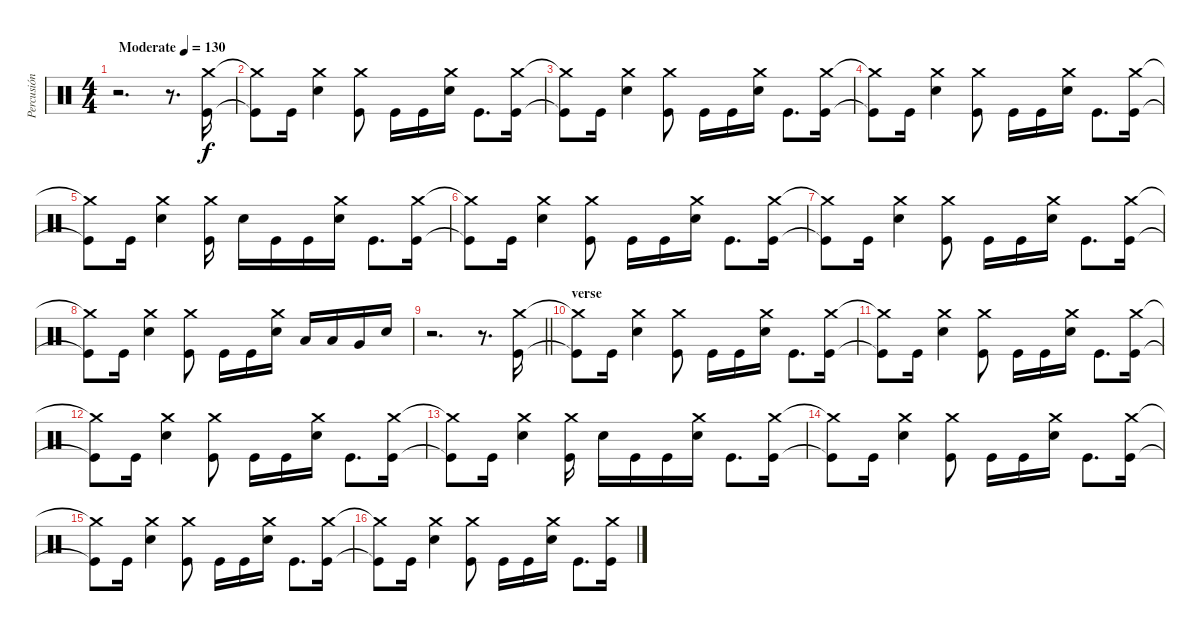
\track ("Percusión" "Percusión") {instrument percussion}
\staff {score}
\articulation defaults
\ts (4 4)
\tempo (130 "Moderate")
\clef neutral
\ks c
r.2{d dy f} r.8{d} ("Crash medium (hit)" "Kick (hit)").16 |
("Crash medium (hit)"{t} "Kick (hit)"{t}).8 "Kick (hit)".16 ("Crash medium (hit)" "Electric Snare (hit)").4 ("Crash medium (hit)" "Kick (hit)").8 "Kick (hit)".16 "Kick (hit)".16 ("Crash medium (hit)" "Electric Snare (hit)").16 "Kick (hit)".8{d} ("Crash medium (hit)" "Kick (hit)").16 |
("Crash medium (hit)"{t} "Kick (hit)"{t}).8 "Kick (hit)".16 ("Crash medium (hit)" "Electric Snare (hit)").4 ("Crash medium (hit)" "Kick (hit)").8 "Kick (hit)".16 "Kick (hit)".16 ("Crash medium (hit)" "Electric Snare (hit)").16 "Kick (hit)".8{d} ("Crash medium (hit)" "Kick (hit)").16 |
("Crash medium (hit)"{t} "Kick (hit)"{t}).8 "Kick (hit)".16 ("Crash medium (hit)" "Electric Snare (hit)").4 ("Crash medium (hit)" "Kick (hit)").8 "Kick (hit)".16 "Kick (hit)".16 ("Crash medium (hit)" "Electric Snare (hit)").16 "Kick (hit)".8{d} ("Crash medium (hit)" "Kick (hit)").16 |
("Crash medium (hit)"{t} "Kick (hit)"{t}).8 "Kick (hit)".16 ("Crash medium (hit)" "Electric Snare (hit)").4 ("Crash medium (hit)" "Kick (hit)").16 "Electric Snare (hit)".16 "Kick (hit)".16 "Kick (hit)".16 ("Crash medium (hit)" "Electric Snare (hit)").16 "Kick (hit)".8{d} ("Crash medium (hit)" "Kick (hit)").16 |
("Crash medium (hit)"{t} "Kick (hit)"{t}).8 "Kick (hit)".16 ("Crash medium (hit)" "Electric Snare (hit)").4 ("Crash medium (hit)" "Kick (hit)").8 "Kick (hit)".16 "Kick (hit)".16 ("Crash medium (hit)" "Electric Snare (hit)").16 "Kick (hit)".8{d} ("Crash medium (hit)" "Kick (hit)").16 |
("Crash medium (hit)"{t} "Kick (hit)"{t}).8 "Kick (hit)".16 ("Crash medium (hit)" "Electric Snare (hit)").4 ("Crash medium (hit)" "Kick (hit)").8 "Kick (hit)".16 "Kick (hit)".16 ("Crash medium (hit)" "Electric Snare (hit)").16 "Kick (hit)".8{d} ("Crash medium (hit)" "Kick (hit)").16 |
("Crash medium (hit)"{t} "Kick (hit)"{t}).8 "Kick (hit)".16 ("Crash medium (hit)" "Electric Snare (hit)").4 ("Crash medium (hit)" "Kick (hit)").8 "Kick (hit)".16 "Kick (hit)".16 ("Crash medium (hit)" "Electric Snare (hit)").16 "Low Tom (hit)".16 "Low Tom (hit)".16 "Very Low Tom (hit)".16 "Electric Snare (hit)".16 |
\barLineRight lightlight
r.2{d} r.8{d} ("Crash medium (hit)" "Kick (hit)").16 |
\section ("" "verse")
("Crash medium (hit)"{t} "Kick (hit)"{t}).8 "Kick (hit)".16 ("Crash medium (hit)" "Electric Snare (hit)").4 ("Crash medium (hit)" "Kick (hit)").8 "Kick (hit)".16 "Kick (hit)".16 ("Crash medium (hit)" "Electric Snare (hit)").16 "Kick (hit)".8{d} ("Crash medium (hit)" "Kick (hit)").16 |
("Crash medium (hit)"{t} "Kick (hit)"{t}).8 "Kick (hit)".16 ("Crash medium (hit)" "Electric Snare (hit)").4 ("Crash medium (hit)" "Kick (hit)").8 "Kick (hit)".16 "Kick (hit)".16 ("Crash medium (hit)" "Electric Snare (hit)").16 "Kick (hit)".8{d} ("Crash medium (hit)" "Kick (hit)").16 |
("Crash medium (hit)"{t} "Kick (hit)"{t}).8 "Kick (hit)".16 ("Crash medium (hit)" "Electric Snare (hit)").4 ("Crash medium (hit)" "Kick (hit)").8 "Kick (hit)".16 "Kick (hit)".16 ("Crash medium (hit)" "Electric Snare (hit)").16 "Kick (hit)".8{d} ("Crash medium (hit)" "Kick (hit)").16 |
("Crash medium (hit)"{t} "Kick (hit)"{t}).8 "Kick (hit)".16 ("Crash medium (hit)" "Electric Snare (hit)").4 ("Crash medium (hit)" "Kick (hit)").16 "Electric Snare (hit)".16 "Kick (hit)".16 "Kick (hit)".16 ("Crash medium (hit)" "Electric Snare (hit)").16 "Kick (hit)".8{d} ("Crash medium (hit)" "Kick (hit)").16 |
("Crash medium (hit)"{t} "Kick (hit)"{t}).8 "Kick (hit)".16 ("Crash medium (hit)" "Electric Snare (hit)").4 ("Crash medium (hit)" "Kick (hit)").8 "Kick (hit)".16 "Kick (hit)".16 ("Crash medium (hit)" "Electric Snare (hit)").16 "Kick (hit)".8{d} ("Crash medium (hit)" "Kick (hit)").16 |
("Crash medium (hit)"{t} "Kick (hit)"{t}).8 "Kick (hit)".16 ("Crash medium (hit)" "Electric Snare (hit)").4 ("Crash medium (hit)" "Kick (hit)").8 "Kick (hit)".16 "Kick (hit)".16 ("Crash medium (hit)" "Electric Snare (hit)").16 "Kick (hit)".8{d} ("Crash medium (hit)" "Kick (hit)").16 |
("Crash medium (hit)"{t} "Kick (hit)"{t}).8 "Kick (hit)".16 ("Crash medium (hit)" "Electric Snare (hit)").4 ("Crash medium (hit)" "Kick (hit)").8 "Kick (hit)".16 "Kick (hit)".16 ("Crash medium (hit)" "Electric Snare (hit)").16 "Kick (hit)".8{d} ("Crash medium (hit)" "Kick (hit)").16
